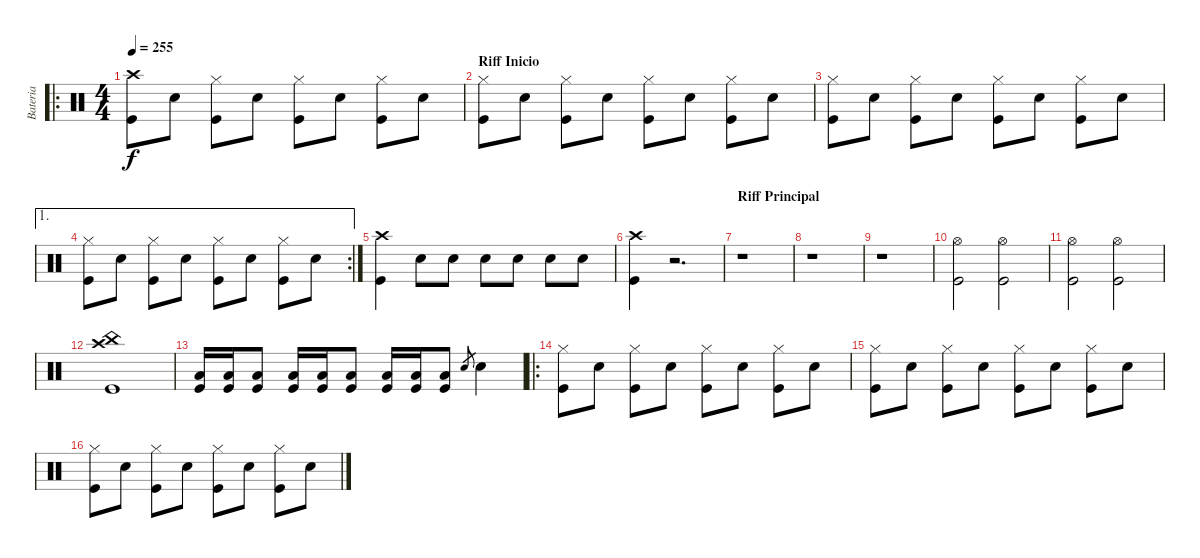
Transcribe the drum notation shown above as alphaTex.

\track ("Bateria" "Bateria") {instrument percussion}
\staff {score}
\articulation defaults
\ro
\ts (4 4)
\tempo 255
\clef neutral
\ks c
("Kick (hit)" "Crash high (hit)").8{dy f} "Electric Snare (hit)".8 ("Kick (hit)" "Hi-Hat (closed)").8 "Electric Snare (hit)".8 ("Kick (hit)" "Hi-Hat (closed)").8 "Electric Snare (hit)".8 ("Kick (hit)" "Hi-Hat (closed)").8 "Electric Snare (hit)".8 |
\section ("" "Riff Inicio")
("Kick (hit)" "Hi-Hat (closed)").8 "Electric Snare (hit)".8 ("Kick (hit)" "Hi-Hat (closed)").8 "Electric Snare (hit)".8 ("Kick (hit)" "Hi-Hat (closed)").8 "Electric Snare (hit)".8 ("Kick (hit)" "Hi-Hat (closed)").8 "Electric Snare (hit)".8 |
("Kick (hit)" "Hi-Hat (closed)").8 "Electric Snare (hit)".8 ("Kick (hit)" "Hi-Hat (closed)").8 "Electric Snare (hit)".8 ("Kick (hit)" "Hi-Hat (closed)").8 "Electric Snare (hit)".8 ("Kick (hit)" "Hi-Hat (closed)").8 "Electric Snare (hit)".8 |
\ae 1
\rc 2
("Kick (hit)" "Hi-Hat (closed)").8 "Electric Snare (hit)".8 ("Kick (hit)" "Hi-Hat (closed)").8 "Electric Snare (hit)".8 ("Kick (hit)" "Hi-Hat (closed)").8 "Electric Snare (hit)".8 ("Kick (hit)" "Hi-Hat (closed)").8 "Electric Snare (hit)".8 |
("Kick (hit)" "Crash high (hit)").4 "Electric Snare (hit)".8 "Electric Snare (hit)".8 "Electric Snare (hit)".8 "Electric Snare (hit)".8 "Electric Snare (hit)".8 "Electric Snare (hit)".8 |
("Kick (hit)" "Crash high (hit)").4 r.2{d} |
\section ("" "Riff Principal")
r.1 |
r.1 |
r.1 |
("Kick (hit)" "Hi-Hat (open)").2 ("Kick (hit)" "Hi-Hat (open)").2 |
("Kick (hit)" "Hi-Hat (open)").2 ("Kick (hit)" "Hi-Hat (open)").2 |
("Kick (hit)" "Crash high (hit)" "China (hit)").1 |
("Kick (hit)" "Low Floor Tom (hit)").16 ("Kick (hit)" "Low Floor Tom (hit)").16 ("Kick (hit)" "Low Floor Tom (hit)").8 ("Kick (hit)" "Low Floor Tom (hit)").16 ("Kick (hit)" "Low Floor Tom (hit)").16 ("Kick (hit)" "Low Floor Tom (hit)").8 ("Kick (hit)" "Low Floor Tom (hit)").16 ("Kick (hit)" "Low Floor Tom (hit)").16 ("Kick (hit)" "Low Floor Tom (hit)").8 "Electric Snare (hit)".8{gr} "Electric Snare (hit)".4 |
\ro
("Kick (hit)" "Hi-Hat (closed)").8 "Electric Snare (hit)".8 ("Kick (hit)" "Hi-Hat (closed)").8 "Electric Snare (hit)".8 ("Kick (hit)" "Hi-Hat (closed)").8 "Electric Snare (hit)".8 ("Kick (hit)" "Hi-Hat (closed)").8 "Electric Snare (hit)".8 |
("Kick (hit)" "Hi-Hat (closed)").8 "Electric Snare (hit)".8 ("Kick (hit)" "Hi-Hat (closed)").8 "Electric Snare (hit)".8 ("Kick (hit)" "Hi-Hat (closed)").8 "Electric Snare (hit)".8 ("Kick (hit)" "Hi-Hat (closed)").8 "Electric Snare (hit)".8 |
("Kick (hit)" "Hi-Hat (closed)").8 "Electric Snare (hit)".8 ("Kick (hit)" "Hi-Hat (closed)").8 "Electric Snare (hit)".8 ("Kick (hit)" "Hi-Hat (closed)").8 "Electric Snare (hit)".8 ("Kick (hit)" "Hi-Hat (closed)").8 "Electric Snare (hit)".8
